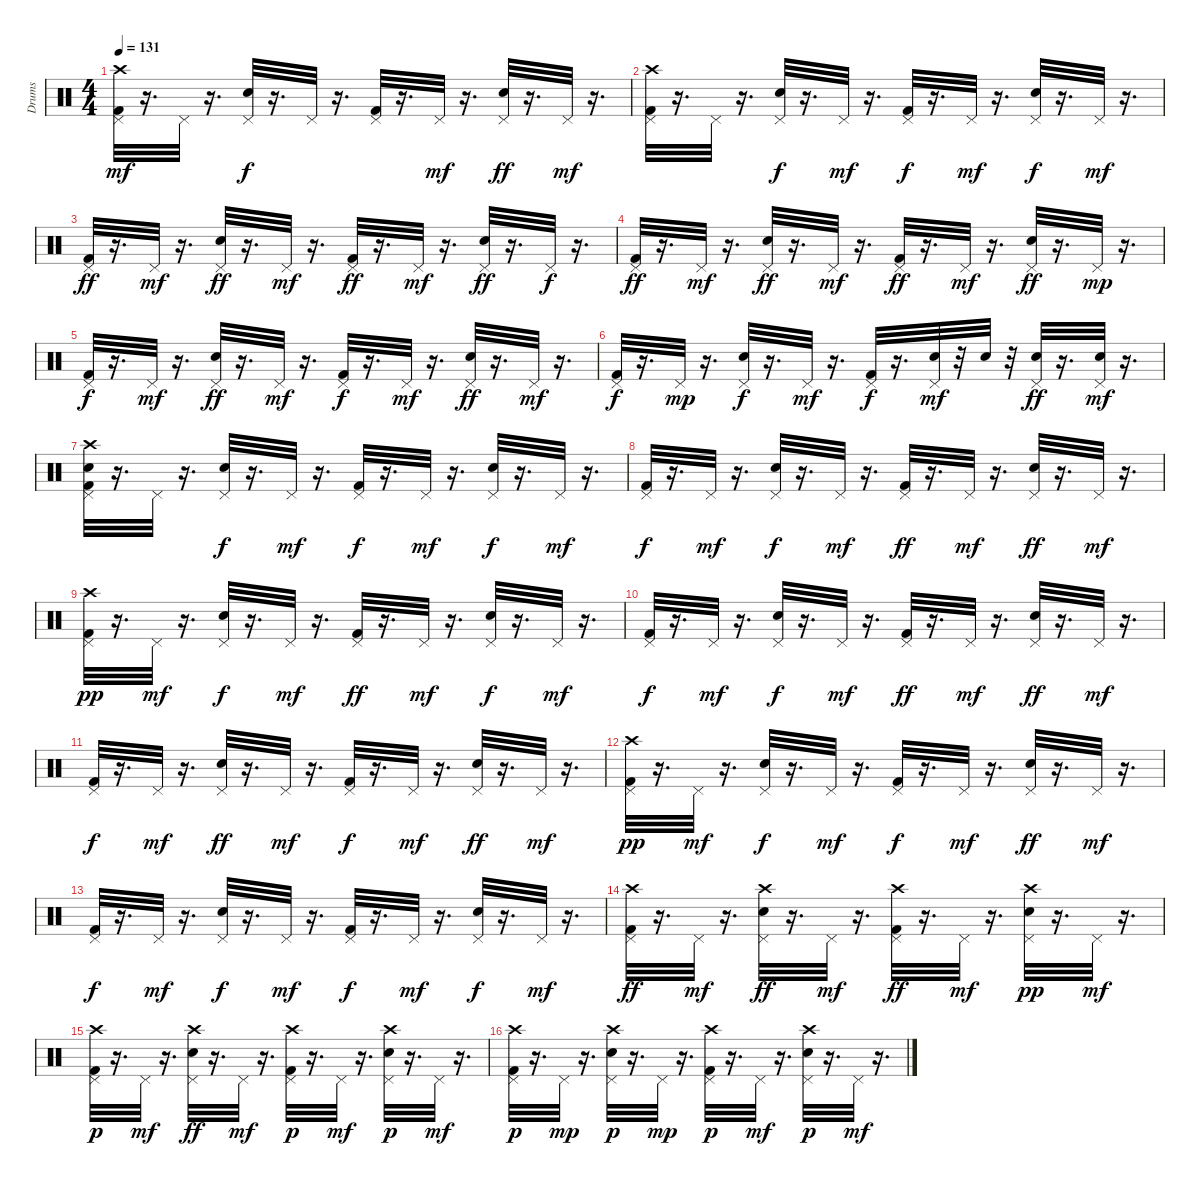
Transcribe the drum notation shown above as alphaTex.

\track ("Drums" "Drums") {instrument percussion}
\staff {score}
\articulation defaults
\ts (4 4)
\tempo 131
\clef neutral
\ks c
("Crash high (hit)" "Kick (hit) 2" "Pedal Hi-Hat (hit)").32{dy mf} r.16{d} "Pedal Hi-Hat (hit)".32 r.16{d} ("Pedal Hi-Hat (hit)" "Snare (hit) 2").32{dy f} r.16{d} "Pedal Hi-Hat (hit)".32 r.16{d} ("Kick (hit) 2" "Pedal Hi-Hat (hit)").32 r.16{d} "Pedal Hi-Hat (hit)".32{dy mf} r.16{d} ("Snare (hit) 2" "Pedal Hi-Hat (hit)").32{dy ff} r.16{d} "Pedal Hi-Hat (hit)".32{dy mf} r.16{d} |
("Pedal Hi-Hat (hit)" "Crash high (hit)" "Kick (hit) 2").32 r.16{d} "Pedal Hi-Hat (hit)".32 r.16{d} ("Pedal Hi-Hat (hit)" "Snare (hit) 2").32{dy f} r.16{d} "Pedal Hi-Hat (hit)".32{dy mf} r.16{d} ("Kick (hit) 2" "Pedal Hi-Hat (hit)").32{dy f} r.16{d} "Pedal Hi-Hat (hit)".32{dy mf} r.16{d} ("Pedal Hi-Hat (hit)" "Snare (hit) 2").32{dy f} r.16{d} "Pedal Hi-Hat (hit)".32{dy mf} r.16{d} |
("Kick (hit) 2" "Pedal Hi-Hat (hit)").32{dy ff} r.16{d} "Pedal Hi-Hat (hit)".32{dy mf} r.16{d} ("Pedal Hi-Hat (hit)" "Snare (hit) 2").32{dy ff} r.16{d} "Pedal Hi-Hat (hit)".32{dy mf} r.16{d} ("Pedal Hi-Hat (hit)" "Kick (hit) 2").32{dy ff} r.16{d} "Pedal Hi-Hat (hit)".32{dy mf} r.16{d} ("Pedal Hi-Hat (hit)" "Snare (hit) 2").32{dy ff} r.16{d} "Pedal Hi-Hat (hit)".32{dy f} r.16{d} |
("Kick (hit) 2" "Pedal Hi-Hat (hit)").32{dy ff} r.16{d} "Pedal Hi-Hat (hit)".32{dy mf} r.16{d} ("Pedal Hi-Hat (hit)" "Snare (hit) 2").32{dy ff} r.16{d} "Pedal Hi-Hat (hit)".32{dy mf} r.16{d} ("Pedal Hi-Hat (hit)" "Kick (hit) 2").32{dy ff} r.16{d} "Pedal Hi-Hat (hit)".32{dy mf} r.16{d} ("Pedal Hi-Hat (hit)" "Snare (hit) 2").32{dy ff} r.16{d} "Pedal Hi-Hat (hit)".32{dy mp} r.16{d} |
("Kick (hit) 2" "Pedal Hi-Hat (hit)").32{dy f} r.16{d} "Pedal Hi-Hat (hit)".32{dy mf} r.16{d} ("Snare (hit) 2" "Pedal Hi-Hat (hit)").32{dy ff} r.16{d} "Pedal Hi-Hat (hit)".32{dy mf} r.16{d} ("Pedal Hi-Hat (hit)" "Kick (hit) 2").32{dy f} r.16{d} "Pedal Hi-Hat (hit)".32{dy mf} r.16{d} ("Snare (hit) 2" "Pedal Hi-Hat (hit)").32{dy ff} r.16{d} "Pedal Hi-Hat (hit)".32{dy mf} r.16{d} |
("Pedal Hi-Hat (hit)" "Kick (hit) 2").32{dy f} r.16{d} "Pedal Hi-Hat (hit)".32{dy mp} r.16{d} ("Pedal Hi-Hat (hit)" "Snare (hit) 2").32{dy f} r.16{d} "Pedal Hi-Hat (hit)".32{dy mf} r.16{d} ("Kick (hit) 2" "Pedal Hi-Hat (hit)").32{dy f} r.16{d} ("Pedal Hi-Hat (hit)" "Snare (hit) 2").32{dy mf} r.32 "Snare (hit) 2".32 r.32 ("Snare (hit) 2" "Pedal Hi-Hat (hit)").32{dy ff} r.16{d} ("Pedal Hi-Hat (hit)" "Snare (hit) 2").32{dy mf} r.16{d} |
("Snare (hit) 2" "Crash high (hit)" "Pedal Hi-Hat (hit)" "Kick (hit) 2").32 r.16{d} "Pedal Hi-Hat (hit)".32 r.16{d} ("Pedal Hi-Hat (hit)" "Snare (hit) 2").32{dy f} r.16{d} "Pedal Hi-Hat (hit)".32{dy mf} r.16{d} ("Pedal Hi-Hat (hit)" "Kick (hit) 2").32{dy f} r.16{d} "Pedal Hi-Hat (hit)".32{dy mf} r.16{d} ("Snare (hit) 2" "Pedal Hi-Hat (hit)").32{dy f} r.16{d} "Pedal Hi-Hat (hit)".32{dy mf} r.16{d} |
("Pedal Hi-Hat (hit)" "Kick (hit) 2").32{dy f} r.16{d} "Pedal Hi-Hat (hit)".32{dy mf} r.16{d} ("Pedal Hi-Hat (hit)" "Snare (hit) 2").32{dy f} r.16{d} "Pedal Hi-Hat (hit)".32{dy mf} r.16{d} ("Kick (hit) 2" "Pedal Hi-Hat (hit)").32{dy ff} r.16{d} "Pedal Hi-Hat (hit)".32{dy mf} r.16{d} ("Snare (hit) 2" "Pedal Hi-Hat (hit)").32{dy ff} r.16{d} "Pedal Hi-Hat (hit)".32{dy mf} r.16{d} |
("Pedal Hi-Hat (hit)" "Kick (hit) 2" "Crash high (hit)").32{dy pp} r.16{d} "Pedal Hi-Hat (hit)".32{dy mf} r.16{d} ("Snare (hit) 2" "Pedal Hi-Hat (hit)").32{dy f} r.16{d} "Pedal Hi-Hat (hit)".32{dy mf} r.16{d} ("Pedal Hi-Hat (hit)" "Kick (hit) 2").32{dy ff} r.16{d} "Pedal Hi-Hat (hit)".32{dy mf} r.16{d} ("Pedal Hi-Hat (hit)" "Snare (hit) 2").32{dy f} r.16{d} "Pedal Hi-Hat (hit)".32{dy mf} r.16{d} |
("Pedal Hi-Hat (hit)" "Kick (hit) 2").32{dy f} r.16{d} "Pedal Hi-Hat (hit)".32{dy mf} r.16{d} ("Snare (hit) 2" "Pedal Hi-Hat (hit)").32{dy f} r.16{d} "Pedal Hi-Hat (hit)".32{dy mf} r.16{d} ("Kick (hit) 2" "Pedal Hi-Hat (hit)").32{dy ff} r.16{d} "Pedal Hi-Hat (hit)".32{dy mf} r.16{d} ("Snare (hit) 2" "Pedal Hi-Hat (hit)").32{dy ff} r.16{d} "Pedal Hi-Hat (hit)".32{dy mf} r.16{d} |
("Pedal Hi-Hat (hit)" "Kick (hit) 2").32{dy f} r.16{d} "Pedal Hi-Hat (hit)".32{dy mf} r.16{d} ("Snare (hit) 2" "Pedal Hi-Hat (hit)").32{dy ff} r.16{d} "Pedal Hi-Hat (hit)".32{dy mf} r.16{d} ("Pedal Hi-Hat (hit)" "Kick (hit) 2").32{dy f} r.16{d} "Pedal Hi-Hat (hit)".32{dy mf} r.16{d} ("Pedal Hi-Hat (hit)" "Snare (hit) 2").32{dy ff} r.16{d} "Pedal Hi-Hat (hit)".32{dy mf} r.16{d} |
("Crash high (hit)" "Pedal Hi-Hat (hit)" "Kick (hit) 2").32{dy pp} r.16{d} "Pedal Hi-Hat (hit)".32{dy mf} r.16{d} ("Snare (hit) 2" "Pedal Hi-Hat (hit)").32{dy f} r.16{d} "Pedal Hi-Hat (hit)".32{dy mf} r.16{d} ("Pedal Hi-Hat (hit)" "Kick (hit) 2").32{dy f} r.16{d} "Pedal Hi-Hat (hit)".32{dy mf} r.16{d} ("Pedal Hi-Hat (hit)" "Snare (hit) 2").32{dy ff} r.16{d} "Pedal Hi-Hat (hit)".32{dy mf} r.16{d} |
("Kick (hit) 2" "Pedal Hi-Hat (hit)").32{dy f} r.16{d} "Pedal Hi-Hat (hit)".32{dy mf} r.16{d} ("Pedal Hi-Hat (hit)" "Snare (hit) 2").32{dy f} r.16{d} "Pedal Hi-Hat (hit)".32{dy mf} r.16{d} ("Kick (hit) 2" "Pedal Hi-Hat (hit)").32{dy f} r.16{d} "Pedal Hi-Hat (hit)".32{dy mf} r.16{d} ("Pedal Hi-Hat (hit)" "Snare (hit) 2").32{dy f} r.16{d} "Pedal Hi-Hat (hit)".32{dy mf} r.16{d} |
("Crash high (hit)" "Kick (hit) 2" "Pedal Hi-Hat (hit)").32{dy ff} r.16{d} "Pedal Hi-Hat (hit)".32{dy mf} r.16{d} ("Snare (hit) 2" "Crash high (hit)" "Pedal Hi-Hat (hit)").32{dy ff} r.16{d} "Pedal Hi-Hat (hit)".32{dy mf} r.16{d} ("Crash high (hit)" "Kick (hit) 2" "Pedal Hi-Hat (hit)").32{dy ff} r.16{d} "Pedal Hi-Hat (hit)".32{dy mf} r.16{d} ("Crash high (hit)" "Pedal Hi-Hat (hit)" "Snare (hit) 2").32{dy pp} r.16{d} "Pedal Hi-Hat (hit)".32{dy mf} r.16{d} |
("Crash high (hit)" "Kick (hit) 2" "Pedal Hi-Hat (hit)").32{dy p} r.16{d} "Pedal Hi-Hat (hit)".32{dy mf} r.16{d} ("Snare (hit) 2" "Crash high (hit)" "Pedal Hi-Hat (hit)").32{dy ff} r.16{d} "Pedal Hi-Hat (hit)".32{dy mf} r.16{d} ("Pedal Hi-Hat (hit)" "Kick (hit) 2" "Crash high (hit)").32{dy p} r.16{d} "Pedal Hi-Hat (hit)".32{dy mf} r.16{d} ("Pedal Hi-Hat (hit)" "Snare (hit) 2" "Crash high (hit)").32{dy p} r.16{d} "Pedal Hi-Hat (hit)".32{dy mf} r.16{d} |
("Crash high (hit)" "Kick (hit) 2" "Pedal Hi-Hat (hit)").32{dy p} r.16{d} "Pedal Hi-Hat (hit)".32{dy mp} r.16{d} ("Crash high (hit)" "Pedal Hi-Hat (hit)" "Snare (hit) 2").32{dy p} r.16{d} "Pedal Hi-Hat (hit)".32{dy mp} r.16{d} ("Pedal Hi-Hat (hit)" "Kick (hit) 2" "Crash high (hit)").32{dy p} r.16{d} "Pedal Hi-Hat (hit)".32{dy mf} r.16{d} ("Crash high (hit)" "Snare (hit) 2" "Pedal Hi-Hat (hit)").32{dy p} r.16{d} "Pedal Hi-Hat (hit)".32{dy mf} r.16{d}
